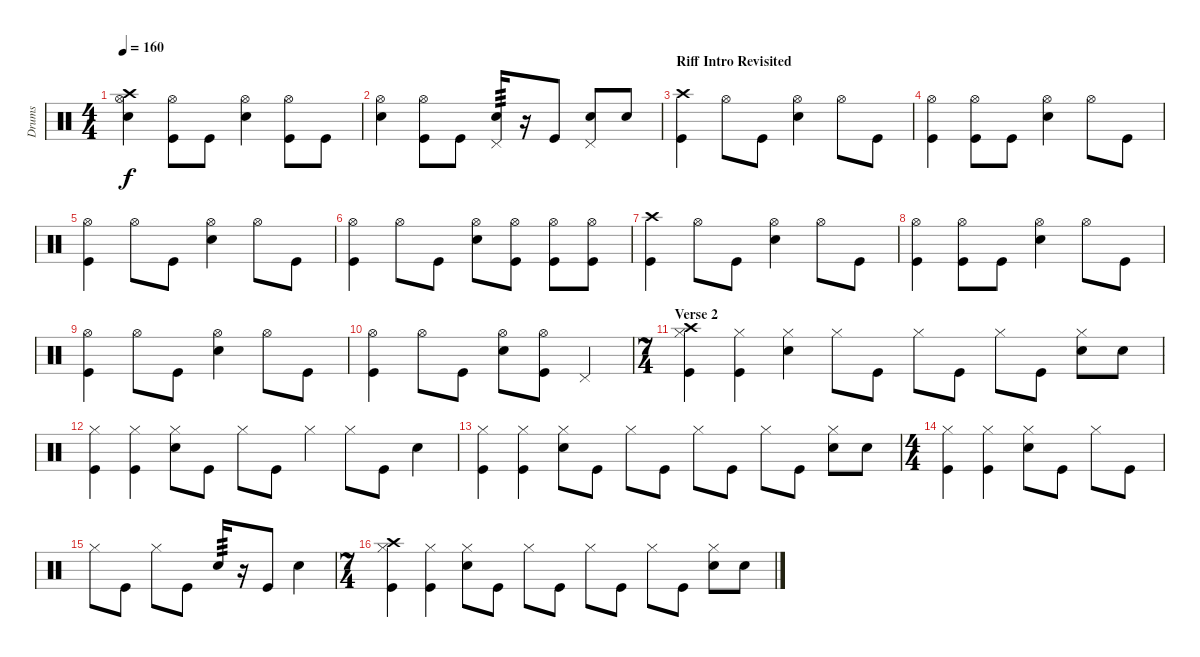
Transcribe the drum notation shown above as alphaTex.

\track ("Drums" "Drums") {instrument percussion}
\staff {score}
\articulation defaults
\ts (4 4)
\tempo 160
\clef neutral
\ks c
("Hi-Hat (open)" "Crash high (hit)" "Snare (hit) 2").4{dy f} ("Hi-Hat (open)" "Kick (hit)").8 "Kick (hit)".8 ("Hi-Hat (open)" "Snare (hit) 2").4 ("Hi-Hat (open)" "Kick (hit)").8 "Kick (hit)".8 |
("Hi-Hat (open)" "Snare (hit) 2").4 ("Hi-Hat (open)" "Kick (hit)").8 "Kick (hit)".8 ("Pedal Hi-Hat (hit)" "Snare (hit) 2").16{tp 3} r.16 "Kick (hit)".8 ("Pedal Hi-Hat (hit)" "Snare (hit) 2").8 "Snare (hit) 2".8 |
\section ("" "Riff Intro Revisited")
("Crash high (hit)" "Kick (hit)").4 "Hi-Hat (open)".8 "Kick (hit)".8 ("Hi-Hat (open)" "Snare (hit) 2").4 "Hi-Hat (open)".8 "Kick (hit)".8 |
("Hi-Hat (open)" "Kick (hit)").4 ("Hi-Hat (open)" "Kick (hit)").8 "Kick (hit)".8 ("Hi-Hat (open)" "Snare (hit) 2").4 "Hi-Hat (open)".8 "Kick (hit)".8 |
("Hi-Hat (open)" "Kick (hit)").4 "Hi-Hat (open)".8 "Kick (hit)".8 ("Hi-Hat (open)" "Snare (hit) 2").4 "Hi-Hat (open)".8 "Kick (hit)".8 |
("Hi-Hat (open)" "Kick (hit)").4 "Hi-Hat (open)".8 "Kick (hit)".8 ("Hi-Hat (open)" "Snare (hit) 2").8 ("Hi-Hat (open)" "Kick (hit)").8 ("Hi-Hat (open)" "Kick (hit)").8 ("Hi-Hat (open)" "Kick (hit)").8 |
("Crash high (hit)" "Kick (hit)").4 "Hi-Hat (open)".8 "Kick (hit)".8 ("Hi-Hat (open)" "Snare (hit) 2").4 "Hi-Hat (open)".8 "Kick (hit)".8 |
("Hi-Hat (open)" "Kick (hit)").4 ("Hi-Hat (open)" "Kick (hit)").8 "Kick (hit)".8 ("Hi-Hat (open)" "Snare (hit) 2").4 "Hi-Hat (open)".8 "Kick (hit)".8 |
("Hi-Hat (open)" "Kick (hit)").4 "Hi-Hat (open)".8 "Kick (hit)".8 ("Hi-Hat (open)" "Snare (hit) 2").4 "Hi-Hat (open)".8 "Kick (hit)".8 |
("Hi-Hat (open)" "Kick (hit)").4 "Hi-Hat (open)".8 "Kick (hit)".8 ("Hi-Hat (open)" "Snare (hit) 2").8 ("Hi-Hat (open)" "Kick (hit)").8 "Pedal Hi-Hat (hit)".4 |
\ts (7 4)
\section ("" "Verse 2")
("Hi-Hat (closed)" "Crash high (hit)" "Kick (hit)").4 ("Hi-Hat (closed)" "Kick (hit)").4 ("Hi-Hat (closed)" "Snare (hit) 2").4 "Hi-Hat (closed)".8 "Kick (hit)".8 "Hi-Hat (closed)".8 "Kick (hit)".8 "Hi-Hat (closed)".8 "Kick (hit)".8 ("Hi-Hat (closed)" "Snare (hit) 2").8 "Snare (hit) 2".8 |
("Hi-Hat (closed)" "Kick (hit)").4 ("Hi-Hat (closed)" "Kick (hit)").4 ("Hi-Hat (closed)" "Snare (hit) 2").8 "Kick (hit)".8 "Hi-Hat (closed)".8 "Kick (hit)".8 "Hi-Hat (closed)".4 "Hi-Hat (closed)".8 "Kick (hit)".8 "Snare (hit) 2".4 |
("Hi-Hat (closed)" "Kick (hit)").4 ("Hi-Hat (closed)" "Kick (hit)").4 ("Hi-Hat (closed)" "Snare (hit) 2").8 "Kick (hit)".8 "Hi-Hat (closed)".8 "Kick (hit)".8 "Hi-Hat (closed)".8 "Kick (hit)".8 "Hi-Hat (closed)".8 "Kick (hit)".8 ("Hi-Hat (closed)" "Snare (hit) 2").8 "Snare (hit) 2".8 |
\ts (4 4)
("Hi-Hat (closed)" "Kick (hit)").4 ("Hi-Hat (closed)" "Kick (hit)").4 ("Hi-Hat (closed)" "Snare (hit) 2").8 "Kick (hit)".8 "Hi-Hat (closed)".8 "Kick (hit)".8 |
"Hi-Hat (closed)".8 "Kick (hit)".8 "Hi-Hat (closed)".8 "Kick (hit)".8 "Snare (hit) 2".16{tp 3} r.16 "Kick (hit)".8 "Snare (hit) 2".4 |
\ts (7 4)
("Hi-Hat (closed)" "Crash high (hit)" "Kick (hit)").4 ("Hi-Hat (closed)" "Kick (hit)").4 ("Hi-Hat (closed)" "Snare (hit) 2").8 "Kick (hit)".8 "Hi-Hat (closed)".8 "Kick (hit)".8 "Hi-Hat (closed)".8 "Kick (hit)".8 "Hi-Hat (closed)".8 "Kick (hit)".8 ("Hi-Hat (closed)" "Snare (hit) 2").8 "Snare (hit) 2".8
